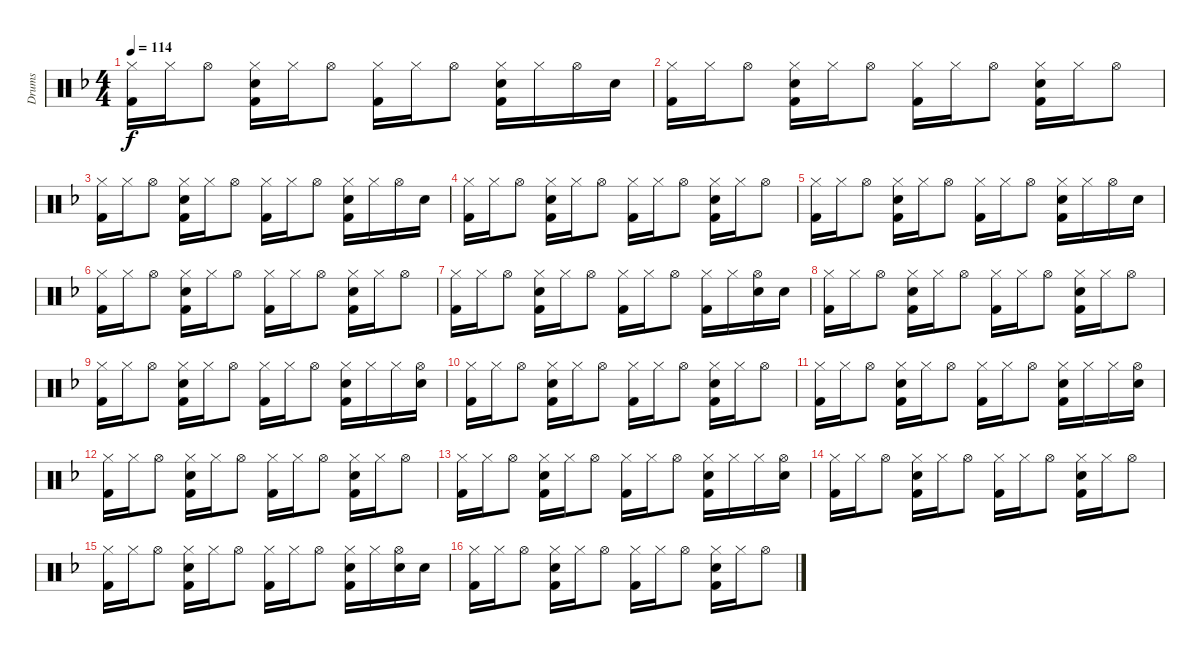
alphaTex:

\track ("Drums" "Drums") {instrument percussion}
\staff {score}
\articulation defaults
\ts (4 4)
\tempo 114
\clef neutral
\ks f
("Hi-Hat (closed)" "Kick (hit) 2").16{dy f} "Hi-Hat (closed)".16 "Hi-Hat (open)".8 ("Hi-Hat (closed)" "Electric Snare (hit)" "Kick (hit) 2").16 "Hi-Hat (closed)".16 "Hi-Hat (open)".8 ("Hi-Hat (closed)" "Kick (hit) 2").16 "Hi-Hat (closed)".16 "Hi-Hat (open)".8 ("Hi-Hat (closed)" "Electric Snare (hit)" "Kick (hit) 2").16 "Hi-Hat (closed)".16 "Hi-Hat (open)".16 "Electric Snare (hit)".16 |
("Hi-Hat (closed)" "Kick (hit) 2").16 "Hi-Hat (closed)".16 "Hi-Hat (open)".8 ("Hi-Hat (closed)" "Electric Snare (hit)" "Kick (hit) 2").16 "Hi-Hat (closed)".16 "Hi-Hat (open)".8 ("Hi-Hat (closed)" "Kick (hit) 2").16 "Hi-Hat (closed)".16 "Hi-Hat (open)".8 ("Hi-Hat (closed)" "Electric Snare (hit)" "Kick (hit) 2").16 "Hi-Hat (closed)".16 "Hi-Hat (open)".8 |
("Hi-Hat (closed)" "Kick (hit) 2").16 "Hi-Hat (closed)".16 "Hi-Hat (open)".8 ("Hi-Hat (closed)" "Electric Snare (hit)" "Kick (hit) 2").16 "Hi-Hat (closed)".16 "Hi-Hat (open)".8 ("Hi-Hat (closed)" "Kick (hit) 2").16 "Hi-Hat (closed)".16 "Hi-Hat (open)".8 ("Hi-Hat (closed)" "Electric Snare (hit)" "Kick (hit) 2").16 "Hi-Hat (closed)".16 "Hi-Hat (open)".16 "Electric Snare (hit)".16 |
("Hi-Hat (closed)" "Kick (hit) 2").16 "Hi-Hat (closed)".16 "Hi-Hat (open)".8 ("Hi-Hat (closed)" "Electric Snare (hit)" "Kick (hit) 2").16 "Hi-Hat (closed)".16 "Hi-Hat (open)".8 ("Hi-Hat (closed)" "Kick (hit) 2").16 "Hi-Hat (closed)".16 "Hi-Hat (open)".8 ("Hi-Hat (closed)" "Electric Snare (hit)" "Kick (hit) 2").16 "Hi-Hat (closed)".16 "Hi-Hat (open)".8 |
("Hi-Hat (closed)" "Kick (hit) 2").16 "Hi-Hat (closed)".16 "Hi-Hat (open)".8 ("Hi-Hat (closed)" "Electric Snare (hit)" "Kick (hit) 2").16 "Hi-Hat (closed)".16 "Hi-Hat (open)".8 ("Hi-Hat (closed)" "Kick (hit) 2").16 "Hi-Hat (closed)".16 "Hi-Hat (open)".8 ("Hi-Hat (closed)" "Electric Snare (hit)" "Kick (hit) 2").16 "Hi-Hat (closed)".16 "Hi-Hat (open)".16 "Electric Snare (hit)".16 |
("Hi-Hat (closed)" "Kick (hit) 2").16 "Hi-Hat (closed)".16 "Hi-Hat (open)".8 ("Hi-Hat (closed)" "Electric Snare (hit)" "Kick (hit) 2").16 "Hi-Hat (closed)".16 "Hi-Hat (open)".8 ("Hi-Hat (closed)" "Kick (hit) 2").16 "Hi-Hat (closed)".16 "Hi-Hat (open)".8 ("Hi-Hat (closed)" "Electric Snare (hit)" "Kick (hit) 2").16 "Hi-Hat (closed)".16 "Hi-Hat (open)".8 |
("Hi-Hat (closed)" "Kick (hit) 2").16 "Hi-Hat (closed)".16 "Hi-Hat (open)".8 ("Hi-Hat (closed)" "Electric Snare (hit)" "Kick (hit) 2").16 "Hi-Hat (closed)".16 "Hi-Hat (open)".8 ("Hi-Hat (closed)" "Kick (hit) 2").16 "Hi-Hat (closed)".16 "Hi-Hat (open)".8 ("Hi-Hat (closed)" "Kick (hit) 2").16 "Hi-Hat (closed)".16 ("Hi-Hat (open)" "Electric Snare (hit)").16 "Electric Snare (hit)".16 |
("Hi-Hat (closed)" "Kick (hit) 2").16 "Hi-Hat (closed)".16 "Hi-Hat (open)".8 ("Hi-Hat (closed)" "Electric Snare (hit)" "Kick (hit) 2").16 "Hi-Hat (closed)".16 "Hi-Hat (open)".8 ("Hi-Hat (closed)" "Kick (hit) 2").16 "Hi-Hat (closed)".16 "Hi-Hat (open)".8 ("Hi-Hat (closed)" "Electric Snare (hit)" "Kick (hit) 2").16 "Hi-Hat (closed)".16 "Hi-Hat (open)".8 |
("Hi-Hat (closed)" "Kick (hit) 2").16 "Hi-Hat (closed)".16 "Hi-Hat (open)".8 ("Hi-Hat (closed)" "Electric Snare (hit)" "Kick (hit) 2").16 "Hi-Hat (closed)".16 "Hi-Hat (open)".8 ("Hi-Hat (closed)" "Kick (hit) 2").16 "Hi-Hat (closed)".16 "Hi-Hat (open)".8 ("Hi-Hat (closed)" "Electric Snare (hit)" "Kick (hit) 2").16 "Hi-Hat (closed)".16 "Hi-Hat (closed)".16 ("Hi-Hat (open)" "Electric Snare (hit)").16 |
("Hi-Hat (closed)" "Kick (hit) 2").16 "Hi-Hat (closed)".16 "Hi-Hat (open)".8 ("Hi-Hat (closed)" "Electric Snare (hit)" "Kick (hit) 2").16 "Hi-Hat (closed)".16 "Hi-Hat (open)".8 ("Hi-Hat (closed)" "Kick (hit) 2").16 "Hi-Hat (closed)".16 "Hi-Hat (open)".8 ("Hi-Hat (closed)" "Electric Snare (hit)" "Kick (hit) 2").16 "Hi-Hat (closed)".16 "Hi-Hat (open)".8 |
("Hi-Hat (closed)" "Kick (hit) 2").16 "Hi-Hat (closed)".16 "Hi-Hat (open)".8 ("Hi-Hat (closed)" "Electric Snare (hit)" "Kick (hit) 2").16 "Hi-Hat (closed)".16 "Hi-Hat (open)".8 ("Hi-Hat (closed)" "Kick (hit) 2").16 "Hi-Hat (closed)".16 "Hi-Hat (open)".8 ("Hi-Hat (closed)" "Electric Snare (hit)" "Kick (hit) 2").16 "Hi-Hat (closed)".16 "Hi-Hat (closed)".16 ("Hi-Hat (open)" "Electric Snare (hit)").16 |
("Hi-Hat (closed)" "Kick (hit) 2").16 "Hi-Hat (closed)".16 "Hi-Hat (open)".8 ("Hi-Hat (closed)" "Electric Snare (hit)" "Kick (hit) 2").16 "Hi-Hat (closed)".16 "Hi-Hat (open)".8 ("Hi-Hat (closed)" "Kick (hit) 2").16 "Hi-Hat (closed)".16 "Hi-Hat (open)".8 ("Hi-Hat (closed)" "Electric Snare (hit)" "Kick (hit) 2").16 "Hi-Hat (closed)".16 "Hi-Hat (open)".8 |
("Hi-Hat (closed)" "Kick (hit) 2").16 "Hi-Hat (closed)".16 "Hi-Hat (open)".8 ("Hi-Hat (closed)" "Electric Snare (hit)" "Kick (hit) 2").16 "Hi-Hat (closed)".16 "Hi-Hat (open)".8 ("Hi-Hat (closed)" "Kick (hit) 2").16 "Hi-Hat (closed)".16 "Hi-Hat (open)".8 ("Hi-Hat (closed)" "Electric Snare (hit)" "Kick (hit) 2").16 "Hi-Hat (closed)".16 "Hi-Hat (closed)".16 ("Hi-Hat (open)" "Electric Snare (hit)").16 |
("Hi-Hat (closed)" "Kick (hit) 2").16 "Hi-Hat (closed)".16 "Hi-Hat (open)".8 ("Hi-Hat (closed)" "Electric Snare (hit)" "Kick (hit) 2").16 "Hi-Hat (closed)".16 "Hi-Hat (open)".8 ("Hi-Hat (closed)" "Kick (hit) 2").16 "Hi-Hat (closed)".16 "Hi-Hat (open)".8 ("Hi-Hat (closed)" "Electric Snare (hit)" "Kick (hit) 2").16 "Hi-Hat (closed)".16 "Hi-Hat (open)".8 |
("Hi-Hat (closed)" "Kick (hit) 2").16 "Hi-Hat (closed)".16 "Hi-Hat (open)".8 ("Hi-Hat (closed)" "Electric Snare (hit)" "Kick (hit) 2").16 "Hi-Hat (closed)".16 "Hi-Hat (open)".8 ("Hi-Hat (closed)" "Kick (hit) 2").16 "Hi-Hat (closed)".16 "Hi-Hat (open)".8 ("Hi-Hat (closed)" "Electric Snare (hit)" "Kick (hit) 2").16 "Hi-Hat (closed)".16 ("Hi-Hat (open)" "Electric Snare (hit)").16 "Electric Snare (hit)".16 |
("Hi-Hat (closed)" "Kick (hit) 2").16 "Hi-Hat (closed)".16 "Hi-Hat (open)".8 ("Hi-Hat (closed)" "Electric Snare (hit)" "Kick (hit) 2").16 "Hi-Hat (closed)".16 "Hi-Hat (open)".8 ("Hi-Hat (closed)" "Kick (hit) 2").16 "Hi-Hat (closed)".16 "Hi-Hat (open)".8 ("Hi-Hat (closed)" "Electric Snare (hit)" "Kick (hit) 2").16 "Hi-Hat (closed)".16 "Hi-Hat (open)".8
